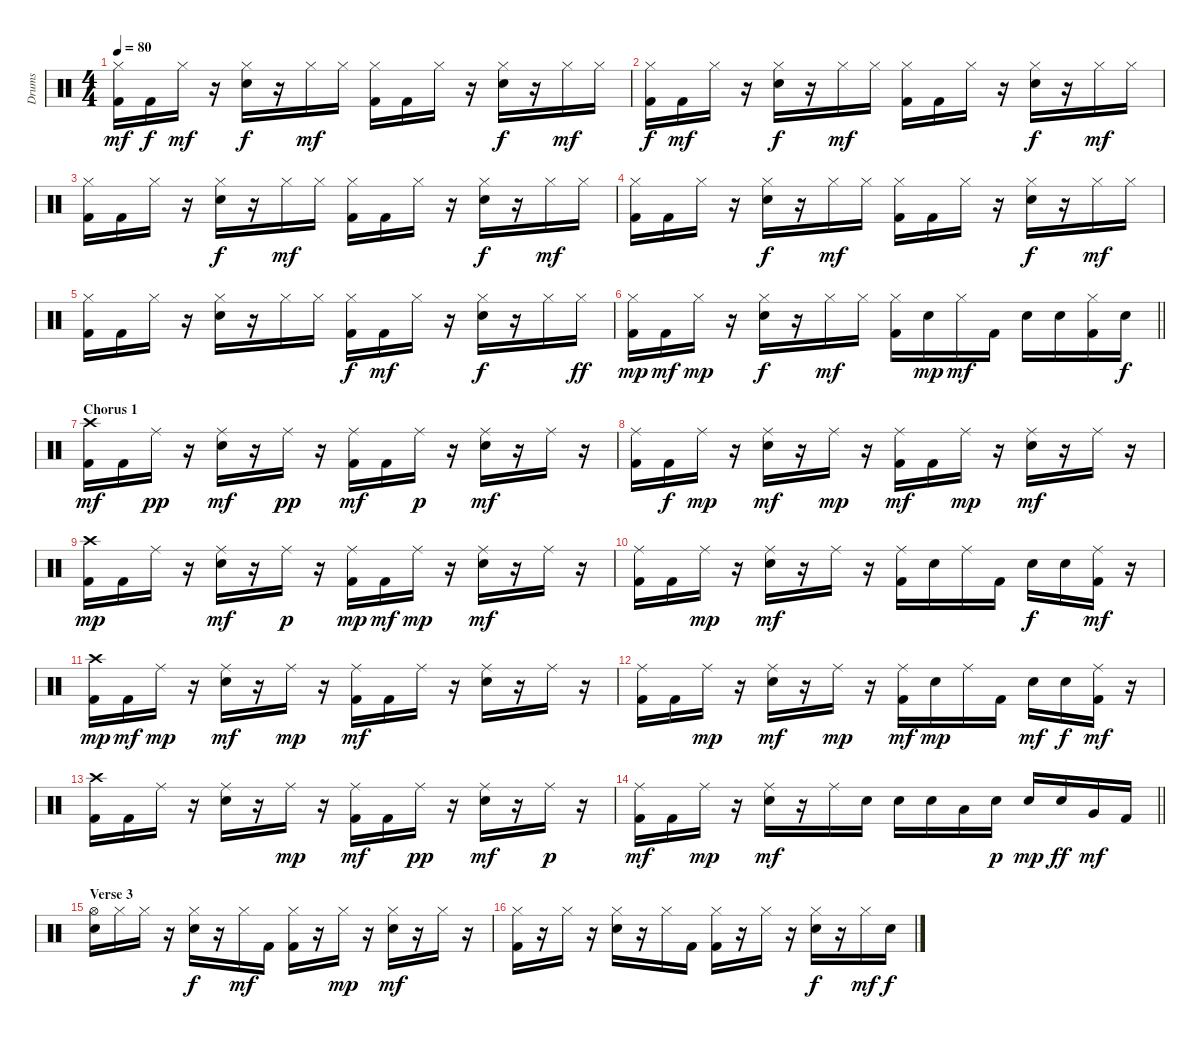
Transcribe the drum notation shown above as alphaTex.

\track ("Drums" "Drums") {instrument percussion}
\staff {score}
\articulation defaults
\ts (4 4)
\tempo 80
\clef neutral
\ks c
("Kick (hit) 2" "Hi-Hat (closed)").16{dy mf} "Kick (hit) 2".16{dy f} "Hi-Hat (closed)".16{dy mf} r.16 ("Snare (hit) 2" "Hi-Hat (closed)").16{dy f} r.16 "Hi-Hat (closed)".16{dy mf} "Hi-Hat (closed)".16 ("Kick (hit) 2" "Hi-Hat (closed)").16 "Kick (hit) 2".16 "Hi-Hat (closed)".16 r.16 ("Snare (hit) 2" "Hi-Hat (closed)").16{dy f} r.16 "Hi-Hat (closed)".16{dy mf} "Hi-Hat (closed)".16 |
("Kick (hit) 2" "Hi-Hat (closed)").16{dy f} "Kick (hit) 2".16{dy mf} "Hi-Hat (closed)".16 r.16 ("Snare (hit) 2" "Hi-Hat (closed)").16{dy f} r.16 "Hi-Hat (closed)".16{dy mf} "Hi-Hat (closed)".16 ("Kick (hit) 2" "Hi-Hat (closed)").16 "Kick (hit) 2".16 "Hi-Hat (closed)".16 r.16 ("Snare (hit) 2" "Hi-Hat (closed)").16{dy f} r.16 "Hi-Hat (closed)".16{dy mf} "Hi-Hat (closed)".16 |
("Kick (hit) 2" "Hi-Hat (closed)").16 "Kick (hit) 2".16 "Hi-Hat (closed)".16 r.16 ("Snare (hit) 2" "Hi-Hat (closed)").16{dy f} r.16 "Hi-Hat (closed)".16{dy mf} "Hi-Hat (closed)".16 ("Kick (hit) 2" "Hi-Hat (closed)").16 "Kick (hit) 2".16 "Hi-Hat (closed)".16 r.16 ("Snare (hit) 2" "Hi-Hat (closed)").16{dy f} r.16 "Hi-Hat (closed)".16{dy mf} "Hi-Hat (closed)".16 |
("Kick (hit) 2" "Hi-Hat (closed)").16 "Kick (hit) 2".16 "Hi-Hat (closed)".16 r.16 ("Snare (hit) 2" "Hi-Hat (closed)").16{dy f} r.16 "Hi-Hat (closed)".16{dy mf} "Hi-Hat (closed)".16 ("Kick (hit) 2" "Hi-Hat (closed)").16 "Kick (hit) 2".16 "Hi-Hat (closed)".16 r.16 ("Snare (hit) 2" "Hi-Hat (closed)").16{dy f} r.16 "Hi-Hat (closed)".16{dy mf} "Hi-Hat (closed)".16 |
("Kick (hit) 2" "Hi-Hat (closed)").16 "Kick (hit) 2".16 "Hi-Hat (closed)".16 r.16 ("Snare (hit) 2" "Hi-Hat (closed)").16 r.16 "Hi-Hat (closed)".16 "Hi-Hat (closed)".16 ("Kick (hit) 2" "Hi-Hat (closed)").16{dy f} "Kick (hit) 2".16{dy mf} "Hi-Hat (closed)".16 r.16 ("Snare (hit) 2" "Hi-Hat (closed)").16{dy f} r.16 "Hi-Hat (closed)".16 "Hi-Hat (closed)".16{dy ff} |
\barLineRight lightlight
("Kick (hit) 2" "Hi-Hat (closed)").16{dy mp} "Kick (hit) 2".16{dy mf} "Hi-Hat (closed)".16{dy mp} r.16 ("Snare (hit) 2" "Hi-Hat (closed)").16{dy f} r.16 "Hi-Hat (closed)".16{dy mf} "Hi-Hat (closed)".16 ("Kick (hit) 2" "Hi-Hat (closed)").16 "Snare (hit) 2".16{dy mp} "Hi-Hat (closed)".16{dy mf} "Kick (hit) 2".16 "Snare (hit) 2".16 "Snare (hit) 2".16 ("Kick (hit) 2" "Hi-Hat (closed)").16 "Snare (hit) 2".16{dy f} |
\section ("" "Chorus 1")
("Kick (hit) 2" "Crash high (hit)").16{dy mf} "Kick (hit) 2".16 "Ride (middle)".16{dy pp} r.16 ("Snare (hit) 2" "Ride (middle)").16{dy mf} r.16 "Ride (middle)".16{dy pp} r.16 ("Kick (hit) 2" "Ride (middle)").16{dy mf} "Kick (hit) 2".16 "Ride (middle)".16{dy p} r.16 ("Snare (hit) 2" "Ride (middle)").16{dy mf} r.16 "Ride (middle)".16 r.16 |
("Kick (hit) 2" "Ride (middle)").16 "Kick (hit) 2".16{dy f} "Ride (middle)".16{dy mp} r.16 ("Snare (hit) 2" "Ride (middle)").16{dy mf} r.16 "Ride (middle)".16{dy mp} r.16 ("Kick (hit) 2" "Ride (middle)").16{dy mf} "Kick (hit) 2".16 "Ride (middle)".16{dy mp} r.16 ("Snare (hit) 2" "Ride (middle)").16{dy mf} r.16 "Ride (middle)".16 r.16 |
("Kick (hit) 2" "Crash high (hit)").16{dy mp} "Kick (hit) 2".16 "Ride (middle)".16 r.16 ("Snare (hit) 2" "Ride (middle)").16{dy mf} r.16 "Ride (middle)".16{dy p} r.16 ("Kick (hit) 2" "Ride (middle)").16{dy mp} "Kick (hit) 2".16{dy mf} "Ride (middle)".16{dy mp} r.16 ("Snare (hit) 2" "Ride (middle)").16{dy mf} r.16 "Ride (middle)".16 r.16 |
("Kick (hit) 2" "Ride (middle)").16 "Kick (hit) 2".16 "Ride (middle)".16{dy mp} r.16 ("Snare (hit) 2" "Ride (middle)").16{dy mf} r.16 "Ride (middle)".16 r.16 ("Kick (hit) 2" "Ride (middle)").16 "Snare (hit) 2".16 "Ride (middle)".16 "Kick (hit) 2".16 "Snare (hit) 2".16{dy f} "Snare (hit) 2".16 ("Kick (hit) 2" "Ride (middle)").16{dy mf} r.16 |
("Kick (hit) 2" "Crash high (hit)").16{dy mp} "Kick (hit) 2".16{dy mf} "Ride (middle)".16{dy mp} r.16 ("Snare (hit) 2" "Ride (middle)").16{dy mf} r.16 "Ride (middle)".16{dy mp} r.16 ("Kick (hit) 2" "Ride (middle)").16{dy mf} "Kick (hit) 2".16 "Ride (middle)".16 r.16 ("Snare (hit) 2" "Ride (middle)").16 r.16 "Ride (middle)".16 r.16 |
("Kick (hit) 2" "Ride (middle)").16 "Kick (hit) 2".16 "Ride (middle)".16{dy mp} r.16 ("Snare (hit) 2" "Ride (middle)").16{dy mf} r.16 "Ride (middle)".16{dy mp} r.16 ("Kick (hit) 2" "Ride (middle)").16{dy mf} "Snare (hit) 2".16{dy mp} "Ride (middle)".16 "Kick (hit) 2".16 "Snare (hit) 2".16{dy mf} "Snare (hit) 2".16{dy f} ("Kick (hit) 2" "Ride (middle)").16{dy mf} r.16 |
("Kick (hit) 2" "Crash high (hit)").16 "Kick (hit) 2".16 "Ride (middle)".16 r.16 ("Snare (hit) 2" "Ride (middle)").16 r.16 "Ride (middle)".16{dy mp} r.16 ("Kick (hit) 2" "Ride (middle)").16{dy mf} "Kick (hit) 2".16 "Ride (middle)".16{dy pp} r.16 ("Snare (hit) 2" "Ride (middle)").16{dy mf} r.16 "Ride (middle)".16{dy p} r.16 |
\barLineRight lightlight
("Kick (hit) 2" "Ride (middle)").16{dy mf} "Kick (hit) 2".16 "Ride (middle)".16{dy mp} r.16 ("Snare (hit) 2" "Ride (middle)").16{dy mf} r.16 "Ride (middle)".16 "Snare (hit) 2".16 "Snare (hit) 2".16 "Snare (hit) 2".16 "Low Tom (hit)".16 "Snare (hit) 2".16{dy p} "Snare (hit) 2".16{dy mp} "Snare (hit) 2".16{dy ff} "Very Low Tom (hit)".16{dy mf} "Kick (hit) 2".16 |
\section ("" "Verse 3")
("Snare (hit) 2" "Hi-Hat (open)").16 "Hi-Hat (closed)".16 "Hi-Hat (closed)".16 r.16 ("Snare (hit) 2" "Hi-Hat (closed)").16{dy f} r.16 "Hi-Hat (closed)".16{dy mf} "Kick (hit) 2".16 ("Kick (hit) 2" "Hi-Hat (closed)").16 r.16 "Hi-Hat (closed)".16{dy mp} r.16 ("Snare (hit) 2" "Hi-Hat (closed)").16{dy mf} r.16 "Hi-Hat (closed)".16 r.16 |
("Kick (hit) 2" "Hi-Hat (closed)").16 r.16 "Hi-Hat (closed)".16 r.16 ("Snare (hit) 2" "Hi-Hat (closed)").16 r.16 "Hi-Hat (closed)".16 "Kick (hit) 2".16 ("Kick (hit) 2" "Hi-Hat (closed)").16 r.16 "Hi-Hat (closed)".16 r.16 ("Snare (hit) 2" "Hi-Hat (closed)").16{dy f} r.16 "Hi-Hat (closed)".16{dy mf} "Snare (hit) 2".16{dy f}
